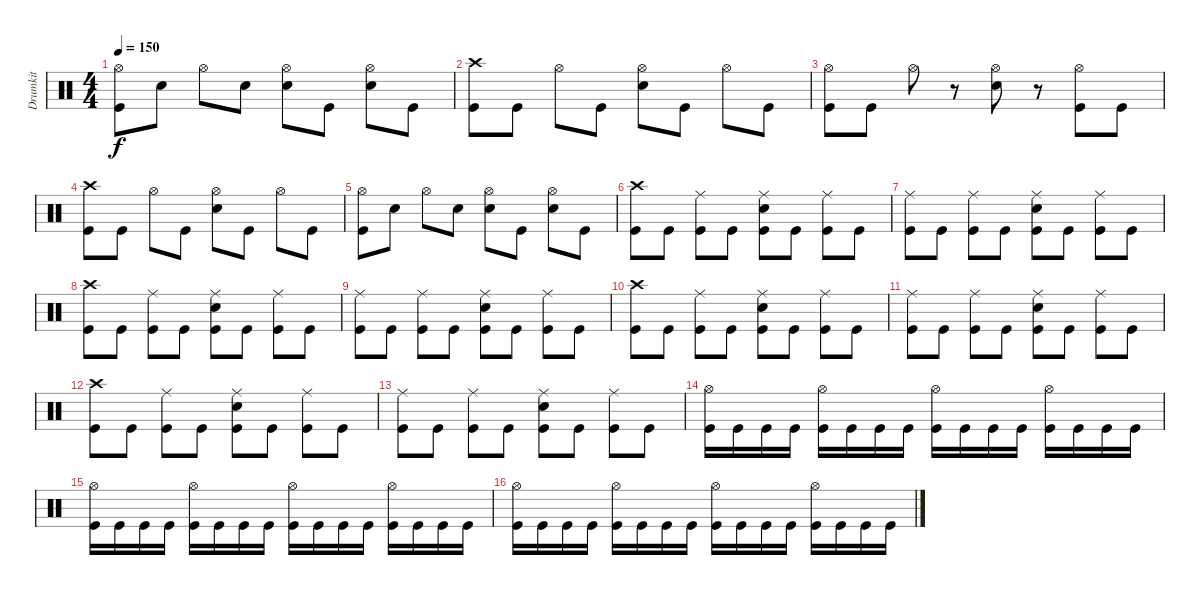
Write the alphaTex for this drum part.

\track ("Drumkit" "Drumkit") {instrument percussion}
\staff {score}
\articulation defaults
\ts (4 4)
\tempo 150
\clef neutral
\ks c
("Kick (hit)" "Hi-Hat (open)").8{dy f} "Snare (hit) 2".8 "Hi-Hat (open)".8 "Snare (hit) 2".8 ("Snare (hit) 2" "Hi-Hat (open)").8 "Kick (hit)".8 ("Snare (hit) 2" "Hi-Hat (open)").8 "Kick (hit)".8 |
("Kick (hit)" "Crash high (hit)").8 "Kick (hit)".8 "Hi-Hat (open)".8 "Kick (hit)".8 ("Snare (hit) 2" "Hi-Hat (open)").8 "Kick (hit)".8 "Hi-Hat (open)".8 "Kick (hit)".8 |
("Kick (hit)" "Hi-Hat (open)").8 "Kick (hit)".8 "Hi-Hat (open)".8 r.8 ("Snare (hit) 2" "Hi-Hat (open)").8 r.8 ("Kick (hit)" "Hi-Hat (open)").8 "Kick (hit)".8 |
("Kick (hit)" "Crash high (hit)").8 "Kick (hit)".8 "Hi-Hat (open)".8 "Kick (hit)".8 ("Snare (hit) 2" "Hi-Hat (open)").8 "Kick (hit)".8 "Hi-Hat (open)".8 "Kick (hit)".8 |
("Kick (hit)" "Hi-Hat (open)").8 "Snare (hit) 2".8 "Hi-Hat (open)".8 "Snare (hit) 2".8 ("Snare (hit) 2" "Hi-Hat (open)").8 "Kick (hit)".8 ("Snare (hit) 2" "Hi-Hat (open)").8 "Kick (hit)".8 |
("Kick (hit)" "Crash high (hit)").8 "Kick (hit)".8 ("Kick (hit)" "Ride (middle)").8 "Kick (hit)".8 ("Kick (hit)" "Snare (hit) 2" "Ride (middle)").8 "Kick (hit)".8 ("Kick (hit)" "Ride (middle)").8 "Kick (hit)".8 |
("Kick (hit)" "Ride (middle)").8 "Kick (hit)".8 ("Kick (hit)" "Ride (middle)").8 "Kick (hit)".8 ("Kick (hit)" "Snare (hit) 2" "Ride (middle)").8 "Kick (hit)".8 ("Kick (hit)" "Ride (middle)").8 "Kick (hit)".8 |
("Kick (hit)" "Crash high (hit)").8 "Kick (hit)".8 ("Kick (hit)" "Ride (middle)").8 "Kick (hit)".8 ("Kick (hit)" "Snare (hit) 2" "Ride (middle)").8 "Kick (hit)".8 ("Kick (hit)" "Ride (middle)").8 "Kick (hit)".8 |
("Kick (hit)" "Ride (middle)").8 "Kick (hit)".8 ("Kick (hit)" "Ride (middle)").8 "Kick (hit)".8 ("Kick (hit)" "Snare (hit) 2" "Ride (middle)").8 "Kick (hit)".8 ("Kick (hit)" "Ride (middle)").8 "Kick (hit)".8 |
("Kick (hit)" "Crash high (hit)").8 "Kick (hit)".8 ("Kick (hit)" "Ride (middle)").8 "Kick (hit)".8 ("Kick (hit)" "Snare (hit) 2" "Ride (middle)").8 "Kick (hit)".8 ("Kick (hit)" "Ride (middle)").8 "Kick (hit)".8 |
("Kick (hit)" "Ride (middle)").8 "Kick (hit)".8 ("Kick (hit)" "Ride (middle)").8 "Kick (hit)".8 ("Kick (hit)" "Snare (hit) 2" "Ride (middle)").8 "Kick (hit)".8 ("Kick (hit)" "Ride (middle)").8 "Kick (hit)".8 |
("Kick (hit)" "Crash high (hit)").8 "Kick (hit)".8 ("Kick (hit)" "Ride (middle)").8 "Kick (hit)".8 ("Kick (hit)" "Snare (hit) 2" "Ride (middle)").8 "Kick (hit)".8 ("Kick (hit)" "Ride (middle)").8 "Kick (hit)".8 |
("Kick (hit)" "Ride (middle)").8 "Kick (hit)".8 ("Kick (hit)" "Ride (middle)").8 "Kick (hit)".8 ("Kick (hit)" "Snare (hit) 2" "Ride (middle)").8 "Kick (hit)".8 ("Kick (hit)" "Ride (middle)").8 "Kick (hit)".8 |
("Hi-Hat (open)" "Kick (hit)").16 "Kick (hit)".16 "Kick (hit)".16 "Kick (hit)".16 ("Hi-Hat (open)" "Kick (hit)").16 "Kick (hit)".16 "Kick (hit)".16 "Kick (hit)".16 ("Hi-Hat (open)" "Kick (hit)").16 "Kick (hit)".16 "Kick (hit)".16 "Kick (hit)".16 ("Hi-Hat (open)" "Kick (hit)").16 "Kick (hit)".16 "Kick (hit)".16 "Kick (hit)".16 |
("Hi-Hat (open)" "Kick (hit)").16 "Kick (hit)".16 "Kick (hit)".16 "Kick (hit)".16 ("Hi-Hat (open)" "Kick (hit)").16 "Kick (hit)".16 "Kick (hit)".16 "Kick (hit)".16 ("Hi-Hat (open)" "Kick (hit)").16 "Kick (hit)".16 "Kick (hit)".16 "Kick (hit)".16 ("Hi-Hat (open)" "Kick (hit)").16 "Kick (hit)".16 "Kick (hit)".16 "Kick (hit)".16 |
("Hi-Hat (open)" "Kick (hit)").16 "Kick (hit)".16 "Kick (hit)".16 "Kick (hit)".16 ("Hi-Hat (open)" "Kick (hit)").16 "Kick (hit)".16 "Kick (hit)".16 "Kick (hit)".16 ("Hi-Hat (open)" "Kick (hit)").16 "Kick (hit)".16 "Kick (hit)".16 "Kick (hit)".16 ("Hi-Hat (open)" "Kick (hit)").16 "Kick (hit)".16 "Kick (hit)".16 "Kick (hit)".16
